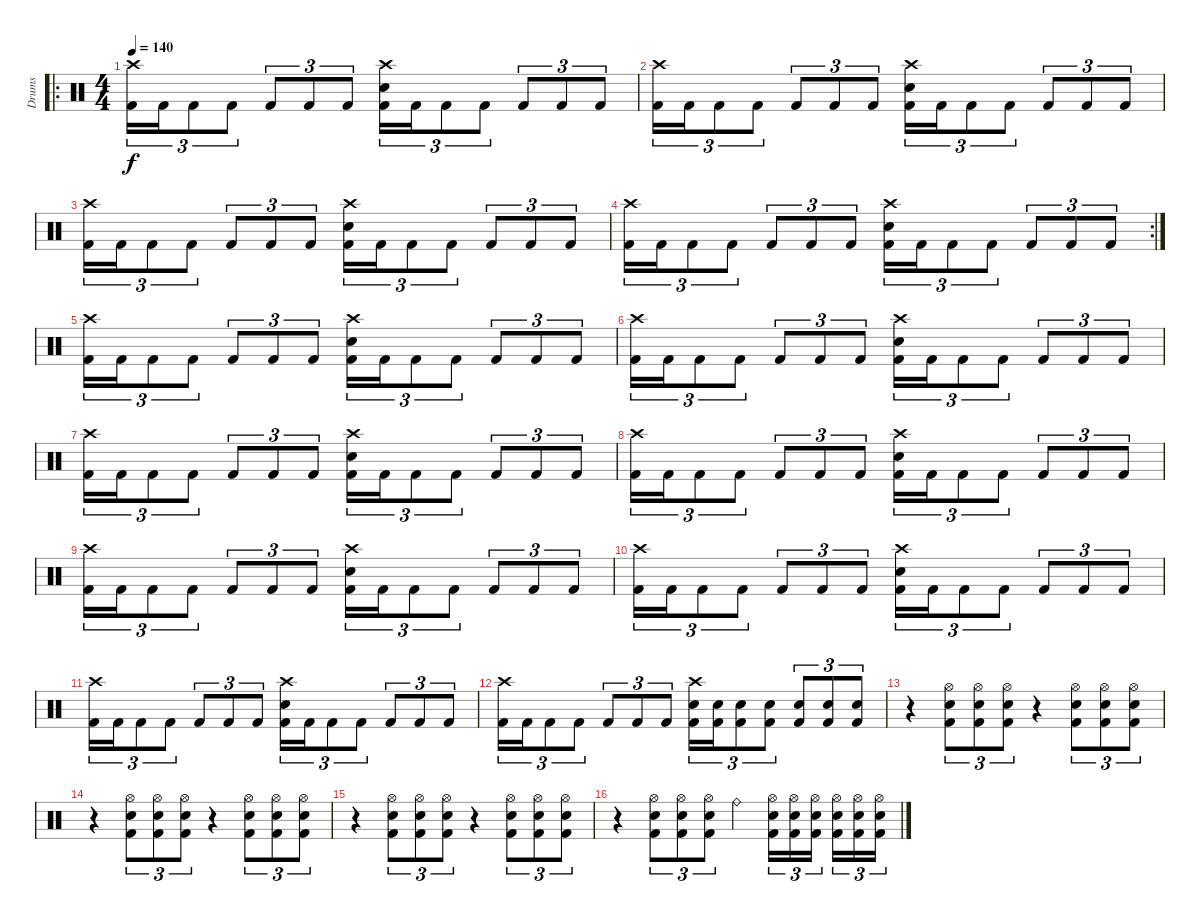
\track ("Drums" "Drums") {instrument percussion}
\staff {score}
\articulation defaults
\ro
\ts (4 4)
\tempo 140
\clef neutral
\ks c
("Crash high (hit)" "Kick (hit) 2").16{tu (3 2) dy f} "Kick (hit) 2".16{tu (3 2)} "Kick (hit) 2".8{tu (3 2)} "Kick (hit) 2".8{tu (3 2)} "Kick (hit) 2".8{tu (3 2)} "Kick (hit) 2".8{tu (3 2)} "Kick (hit) 2".8{tu (3 2)} ("Crash high (hit)" "Snare (hit) 2" "Kick (hit) 2").16{tu (3 2)} "Kick (hit) 2".16{tu (3 2)} "Kick (hit) 2".8{tu (3 2)} "Kick (hit) 2".8{tu (3 2)} "Kick (hit) 2".8{tu (3 2)} "Kick (hit) 2".8{tu (3 2)} "Kick (hit) 2".8{tu (3 2)} |
("Crash high (hit)" "Kick (hit) 2").16{tu (3 2)} "Kick (hit) 2".16{tu (3 2)} "Kick (hit) 2".8{tu (3 2)} "Kick (hit) 2".8{tu (3 2)} "Kick (hit) 2".8{tu (3 2)} "Kick (hit) 2".8{tu (3 2)} "Kick (hit) 2".8{tu (3 2)} ("Crash high (hit)" "Snare (hit) 2" "Kick (hit) 2").16{tu (3 2)} "Kick (hit) 2".16{tu (3 2)} "Kick (hit) 2".8{tu (3 2)} "Kick (hit) 2".8{tu (3 2)} "Kick (hit) 2".8{tu (3 2)} "Kick (hit) 2".8{tu (3 2)} "Kick (hit) 2".8{tu (3 2)} |
("Crash high (hit)" "Kick (hit) 2").16{tu (3 2)} "Kick (hit) 2".16{tu (3 2)} "Kick (hit) 2".8{tu (3 2)} "Kick (hit) 2".8{tu (3 2)} "Kick (hit) 2".8{tu (3 2)} "Kick (hit) 2".8{tu (3 2)} "Kick (hit) 2".8{tu (3 2)} ("Crash high (hit)" "Snare (hit) 2" "Kick (hit) 2").16{tu (3 2)} "Kick (hit) 2".16{tu (3 2)} "Kick (hit) 2".8{tu (3 2)} "Kick (hit) 2".8{tu (3 2)} "Kick (hit) 2".8{tu (3 2)} "Kick (hit) 2".8{tu (3 2)} "Kick (hit) 2".8{tu (3 2)} |
\rc 2
("Crash high (hit)" "Kick (hit) 2").16{tu (3 2)} "Kick (hit) 2".16{tu (3 2)} "Kick (hit) 2".8{tu (3 2)} "Kick (hit) 2".8{tu (3 2)} "Kick (hit) 2".8{tu (3 2)} "Kick (hit) 2".8{tu (3 2)} "Kick (hit) 2".8{tu (3 2)} ("Crash high (hit)" "Snare (hit) 2" "Kick (hit) 2").16{tu (3 2)} "Kick (hit) 2".16{tu (3 2)} "Kick (hit) 2".8{tu (3 2)} "Kick (hit) 2".8{tu (3 2)} "Kick (hit) 2".8{tu (3 2)} "Kick (hit) 2".8{tu (3 2)} "Kick (hit) 2".8{tu (3 2)} |
("Crash high (hit)" "Kick (hit) 2").16{tu (3 2)} "Kick (hit) 2".16{tu (3 2)} "Kick (hit) 2".8{tu (3 2)} "Kick (hit) 2".8{tu (3 2)} "Kick (hit) 2".8{tu (3 2)} "Kick (hit) 2".8{tu (3 2)} "Kick (hit) 2".8{tu (3 2)} ("Crash high (hit)" "Snare (hit) 2" "Kick (hit) 2").16{tu (3 2)} "Kick (hit) 2".16{tu (3 2)} "Kick (hit) 2".8{tu (3 2)} "Kick (hit) 2".8{tu (3 2)} "Kick (hit) 2".8{tu (3 2)} "Kick (hit) 2".8{tu (3 2)} "Kick (hit) 2".8{tu (3 2)} |
("Crash high (hit)" "Kick (hit) 2").16{tu (3 2)} "Kick (hit) 2".16{tu (3 2)} "Kick (hit) 2".8{tu (3 2)} "Kick (hit) 2".8{tu (3 2)} "Kick (hit) 2".8{tu (3 2)} "Kick (hit) 2".8{tu (3 2)} "Kick (hit) 2".8{tu (3 2)} ("Crash high (hit)" "Snare (hit) 2" "Kick (hit) 2").16{tu (3 2)} "Kick (hit) 2".16{tu (3 2)} "Kick (hit) 2".8{tu (3 2)} "Kick (hit) 2".8{tu (3 2)} "Kick (hit) 2".8{tu (3 2)} "Kick (hit) 2".8{tu (3 2)} "Kick (hit) 2".8{tu (3 2)} |
("Crash high (hit)" "Kick (hit) 2").16{tu (3 2)} "Kick (hit) 2".16{tu (3 2)} "Kick (hit) 2".8{tu (3 2)} "Kick (hit) 2".8{tu (3 2)} "Kick (hit) 2".8{tu (3 2)} "Kick (hit) 2".8{tu (3 2)} "Kick (hit) 2".8{tu (3 2)} ("Crash high (hit)" "Snare (hit) 2" "Kick (hit) 2").16{tu (3 2)} "Kick (hit) 2".16{tu (3 2)} "Kick (hit) 2".8{tu (3 2)} "Kick (hit) 2".8{tu (3 2)} "Kick (hit) 2".8{tu (3 2)} "Kick (hit) 2".8{tu (3 2)} "Kick (hit) 2".8{tu (3 2)} |
("Crash high (hit)" "Kick (hit) 2").16{tu (3 2)} "Kick (hit) 2".16{tu (3 2)} "Kick (hit) 2".8{tu (3 2)} "Kick (hit) 2".8{tu (3 2)} "Kick (hit) 2".8{tu (3 2)} "Kick (hit) 2".8{tu (3 2)} "Kick (hit) 2".8{tu (3 2)} ("Crash high (hit)" "Snare (hit) 2" "Kick (hit) 2").16{tu (3 2)} "Kick (hit) 2".16{tu (3 2)} "Kick (hit) 2".8{tu (3 2)} "Kick (hit) 2".8{tu (3 2)} "Kick (hit) 2".8{tu (3 2)} "Kick (hit) 2".8{tu (3 2)} "Kick (hit) 2".8{tu (3 2)} |
("Crash high (hit)" "Kick (hit) 2").16{tu (3 2)} "Kick (hit) 2".16{tu (3 2)} "Kick (hit) 2".8{tu (3 2)} "Kick (hit) 2".8{tu (3 2)} "Kick (hit) 2".8{tu (3 2)} "Kick (hit) 2".8{tu (3 2)} "Kick (hit) 2".8{tu (3 2)} ("Crash high (hit)" "Snare (hit) 2" "Kick (hit) 2").16{tu (3 2)} "Kick (hit) 2".16{tu (3 2)} "Kick (hit) 2".8{tu (3 2)} "Kick (hit) 2".8{tu (3 2)} "Kick (hit) 2".8{tu (3 2)} "Kick (hit) 2".8{tu (3 2)} "Kick (hit) 2".8{tu (3 2)} |
("Crash high (hit)" "Kick (hit) 2").16{tu (3 2)} "Kick (hit) 2".16{tu (3 2)} "Kick (hit) 2".8{tu (3 2)} "Kick (hit) 2".8{tu (3 2)} "Kick (hit) 2".8{tu (3 2)} "Kick (hit) 2".8{tu (3 2)} "Kick (hit) 2".8{tu (3 2)} ("Crash high (hit)" "Snare (hit) 2" "Kick (hit) 2").16{tu (3 2)} "Kick (hit) 2".16{tu (3 2)} "Kick (hit) 2".8{tu (3 2)} "Kick (hit) 2".8{tu (3 2)} "Kick (hit) 2".8{tu (3 2)} "Kick (hit) 2".8{tu (3 2)} "Kick (hit) 2".8{tu (3 2)} |
("Crash high (hit)" "Kick (hit) 2").16{tu (3 2)} "Kick (hit) 2".16{tu (3 2)} "Kick (hit) 2".8{tu (3 2)} "Kick (hit) 2".8{tu (3 2)} "Kick (hit) 2".8{tu (3 2)} "Kick (hit) 2".8{tu (3 2)} "Kick (hit) 2".8{tu (3 2)} ("Crash high (hit)" "Snare (hit) 2" "Kick (hit) 2").16{tu (3 2)} "Kick (hit) 2".16{tu (3 2)} "Kick (hit) 2".8{tu (3 2)} "Kick (hit) 2".8{tu (3 2)} "Kick (hit) 2".8{tu (3 2)} "Kick (hit) 2".8{tu (3 2)} "Kick (hit) 2".8{tu (3 2)} |
("Crash high (hit)" "Kick (hit) 2").16{tu (3 2)} "Kick (hit) 2".16{tu (3 2)} "Kick (hit) 2".8{tu (3 2)} "Kick (hit) 2".8{tu (3 2)} "Kick (hit) 2".8{tu (3 2)} "Kick (hit) 2".8{tu (3 2)} "Kick (hit) 2".8{tu (3 2)} ("Crash high (hit)" "Snare (hit) 2" "Kick (hit) 2").16{tu (3 2)} ("Snare (hit) 2" "Kick (hit) 2").16{tu (3 2)} ("Snare (hit) 2" "Kick (hit) 2").8{tu (3 2)} ("Snare (hit) 2" "Kick (hit) 2").8{tu (3 2)} ("Snare (hit) 2" "Kick (hit) 2").8{tu (3 2)} ("Snare (hit) 2" "Kick (hit) 2").8{tu (3 2)} ("Snare (hit) 2" "Kick (hit) 2").8{tu (3 2)} |
r.4 ("Hi-Hat (open)" "Snare (hit) 2" "Kick (hit) 2").8{tu (3 2)} ("Hi-Hat (open)" "Snare (hit) 2" "Kick (hit) 2").8{tu (3 2)} ("Hi-Hat (open)" "Snare (hit) 2" "Kick (hit) 2").8{tu (3 2)} r.4 ("Hi-Hat (open)" "Snare (hit) 2" "Kick (hit) 2").8{tu (3 2)} ("Hi-Hat (open)" "Snare (hit) 2" "Kick (hit) 2").8{tu (3 2)} ("Hi-Hat (open)" "Snare (hit) 2" "Kick (hit) 2").8{tu (3 2)} |
r.4 ("Hi-Hat (open)" "Snare (hit) 2" "Kick (hit) 2").8{tu (3 2)} ("Hi-Hat (open)" "Snare (hit) 2" "Kick (hit) 2").8{tu (3 2)} ("Hi-Hat (open)" "Snare (hit) 2" "Kick (hit) 2").8{tu (3 2)} r.4 ("Hi-Hat (open)" "Snare (hit) 2" "Kick (hit) 2").8{tu (3 2)} ("Hi-Hat (open)" "Snare (hit) 2" "Kick (hit) 2").8{tu (3 2)} ("Hi-Hat (open)" "Snare (hit) 2" "Kick (hit) 2").8{tu (3 2)} |
r.4 ("Hi-Hat (open)" "Snare (hit) 2" "Kick (hit) 2").8{tu (3 2)} ("Hi-Hat (open)" "Snare (hit) 2" "Kick (hit) 2").8{tu (3 2)} ("Hi-Hat (open)" "Snare (hit) 2" "Kick (hit) 2").8{tu (3 2)} r.4 ("Hi-Hat (open)" "Snare (hit) 2" "Kick (hit) 2").8{tu (3 2)} ("Hi-Hat (open)" "Snare (hit) 2" "Kick (hit) 2").8{tu (3 2)} ("Hi-Hat (open)" "Snare (hit) 2" "Kick (hit) 2").8{tu (3 2)} |
r.4 ("Hi-Hat (open)" "Snare (hit) 2" "Kick (hit) 2").8{tu (3 2)} ("Hi-Hat (open)" "Snare (hit) 2" "Kick (hit) 2").8{tu (3 2)} ("Hi-Hat (open)" "Snare (hit) 2" "Kick (hit) 2").8{tu (3 2)} "Ride (bell)".4 ("Hi-Hat (open)" "Snare (hit) 2" "Kick (hit) 2").16{tu (3 2)} ("Hi-Hat (open)" "Snare (hit) 2" "Kick (hit) 2").16{tu (3 2)} ("Hi-Hat (open)" "Snare (hit) 2" "Kick (hit) 2").16{tu (3 2)} ("Hi-Hat (open)" "Snare (hit) 2" "Kick (hit) 2").16{tu (3 2)} ("Hi-Hat (open)" "Snare (hit) 2" "Kick (hit) 2").16{tu (3 2)} ("Hi-Hat (open)" "Snare (hit) 2" "Kick (hit) 2").16{tu (3 2)}
